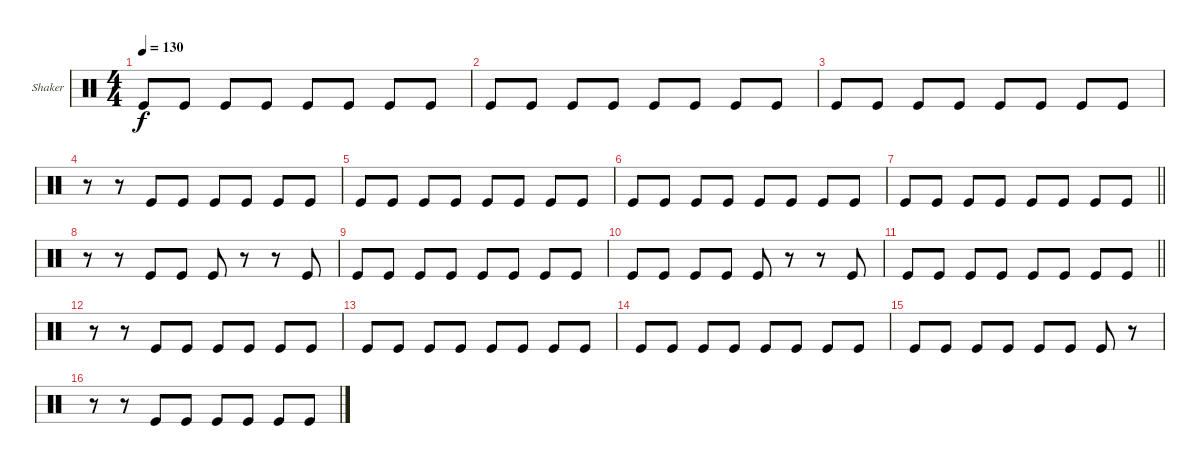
\defaultSystemsLayout 4
\bracketExtendMode groupsimilarinstruments
\firstSystemTrackNameOrientation horizontal
\otherSystemsTrackNameOrientation horizontal
\track ("Shaker" "Shaker") {instrument percussion}
\staff {score}
\articulation defaults
\ts (4 4)
\tempo 130
\clef neutral
\scale
0.333333
\ks aminor "Kick (hit)".8{dy f} "Kick (hit)".8 "Kick (hit)".8 "Kick (hit)".8 "Kick (hit)".8 "Kick (hit)".8 "Kick (hit)".8 "Kick (hit)".8
|
\scale
0.333333 "Kick (hit)".8 "Kick (hit)".8 "Kick (hit)".8 "Kick (hit)".8 "Kick (hit)".8 "Kick (hit)".8 "Kick (hit)".8 "Kick (hit)".8 |
\scale
0.333333 "Kick (hit)".8 "Kick (hit)".8 "Kick (hit)".8 "Kick (hit)".8 "Kick (hit)".8 "Kick (hit)".8 "Kick (hit)".8 "Kick (hit)".8 |
\scale
0.333333 r.8 r.8 "Kick (hit)".8 "Kick (hit)".8 "Kick (hit)".8 "Kick (hit)".8 "Kick (hit)".8 "Kick (hit)".8 |
\scale
0.333333 "Kick (hit)".8 "Kick (hit)".8 "Kick (hit)".8 "Kick (hit)".8 "Kick (hit)".8 "Kick (hit)".8 "Kick (hit)".8 "Kick (hit)".8 |
\scale
0.333333 "Kick (hit)".8 "Kick (hit)".8 "Kick (hit)".8 "Kick (hit)".8 "Kick (hit)".8 "Kick (hit)".8 "Kick (hit)".8 "Kick (hit)".8 |
\scale
0.333333
\barLineRight lightlight "Kick (hit)".8 "Kick (hit)".8 "Kick (hit)".8 "Kick (hit)".8 "Kick (hit)".8 "Kick (hit)".8 "Kick (hit)".8 "Kick (hit)".8
|
\scale
0.333333 r.8 r.8 "Kick (hit)".8 "Kick (hit)".8 "Kick (hit)".8 r.8 r.8 "Kick (hit)".8 |
\scale
0.333333 "Kick (hit)".8 "Kick (hit)".8 "Kick (hit)".8 "Kick (hit)".8 "Kick (hit)".8 "Kick (hit)".8 "Kick (hit)".8 "Kick (hit)".8 |
\scale
0.333333 "Kick (hit)".8 "Kick (hit)".8 "Kick (hit)".8 "Kick (hit)".8 "Kick (hit)".8 r.8 r.8 "Kick (hit)".8 |
\scale
0.333333
\barLineRight lightlight "Kick (hit)".8 "Kick (hit)".8 "Kick (hit)".8 "Kick (hit)".8 "Kick (hit)".8 "Kick (hit)".8 "Kick (hit)".8 "Kick (hit)".8
|
\scale
0.333333 r.8 r.8 "Kick (hit)".8 "Kick (hit)".8 "Kick (hit)".8 "Kick (hit)".8 "Kick (hit)".8 "Kick (hit)".8 |
\scale
0.333333 "Kick (hit)".8 "Kick (hit)".8 "Kick (hit)".8 "Kick (hit)".8 "Kick (hit)".8 "Kick (hit)".8 "Kick (hit)".8 "Kick (hit)".8 |
\scale
0.333333 "Kick (hit)".8 "Kick (hit)".8 "Kick (hit)".8 "Kick (hit)".8 "Kick (hit)".8 "Kick (hit)".8 "Kick (hit)".8 "Kick (hit)".8 |
\scale
0.333333 "Kick (hit)".8 "Kick (hit)".8 "Kick (hit)".8 "Kick (hit)".8 "Kick (hit)".8 "Kick (hit)".8 "Kick (hit)".8 r.8 |
\scale
0.333333 r.8 r.8 "Kick (hit)".8 "Kick (hit)".8 "Kick (hit)".8 "Kick (hit)".8 "Kick (hit)".8 "Kick (hit)".8
